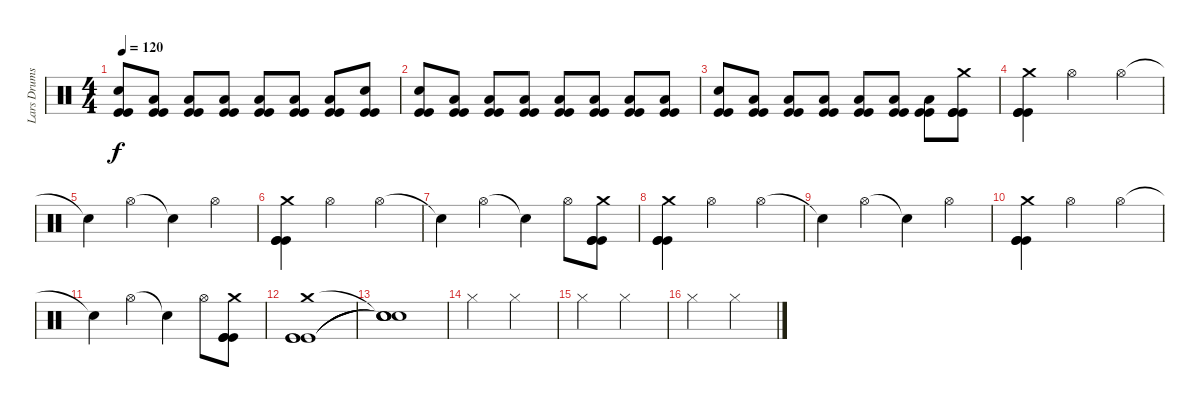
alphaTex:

\track ("Lars Drums" "Lars Drums") {instrument percussion}
\staff {score}
\articulation defaults
\ts (4 4)
\tempo 120
\clef neutral
\ks c
("Electric Snare (hit)" "Kick (hit)" "Kick (hit)").8{dy f} ("Low Tom (hit)" "Kick (hit)" "Kick (hit)").8 ("Low Tom (hit)" "Kick (hit)" "Kick (hit)").8 ("Low Tom (hit)" "Kick (hit)" "Kick (hit)").8 ("Low Tom (hit)" "Kick (hit)" "Kick (hit)").8 ("Low Tom (hit)" "Kick (hit)" "Kick (hit)").8 ("Low Tom (hit)" "Kick (hit)" "Kick (hit)").8 ("Electric Snare (hit)" "Kick (hit)" "Kick (hit)").8 |
("Electric Snare (hit)" "Kick (hit)" "Kick (hit)").8 ("Low Tom (hit)" "Kick (hit)" "Kick (hit)").8 ("Low Tom (hit)" "Kick (hit)" "Kick (hit)").8 ("Low Tom (hit)" "Kick (hit)" "Kick (hit)").8 ("Low Tom (hit)" "Kick (hit)" "Kick (hit)").8 ("Low Tom (hit)" "Kick (hit)" "Kick (hit)").8 ("Low Tom (hit)" "Kick (hit)" "Kick (hit)").8 ("Low Tom (hit)" "Kick (hit)" "Kick (hit)").8 |
("Electric Snare (hit)" "Kick (hit)" "Kick (hit)").8 ("Low Tom (hit)" "Kick (hit)" "Kick (hit)").8 ("Low Tom (hit)" "Kick (hit)" "Kick (hit)").8 ("Low Tom (hit)" "Kick (hit)" "Kick (hit)").8 ("Low Tom (hit)" "Kick (hit)" "Kick (hit)").8 ("Low Tom (hit)" "Kick (hit)" "Kick (hit)").8 ("Low Tom (hit)" "Kick (hit)" "Kick (hit)").8 ("Kick (hit)" "Kick (hit)" "Kick (hit)" "Crash medium (hit)").8 |
("Kick (hit)" "Kick (hit)" "Kick (hit)" "Crash medium (hit)").4 "Hi-Hat (open)".2 "Hi-Hat (open)".4 |
"Snare (hit)"{t}.4 "Hi-Hat (open)".4 "Snare (hit)"{t}.4 "Hi-Hat (open)".4 |
("Kick (hit)" "Kick (hit)" "Kick (hit)" "Crash medium (hit)").4 "Hi-Hat (open)".2 "Hi-Hat (open)".4 |
"Snare (hit)"{t}.4 "Hi-Hat (open)".4 "Snare (hit)"{t}.4 "Hi-Hat (open)".8 ("Kick (hit)" "Kick (hit)" "Kick (hit)" "Crash medium (hit)").8 |
("Kick (hit)" "Kick (hit)" "Kick (hit)" "Crash medium (hit)").4 "Hi-Hat (open)".2 "Hi-Hat (open)".4 |
"Snare (hit)"{t}.4 "Hi-Hat (open)".4 "Snare (hit)"{t}.4 "Hi-Hat (open)".4 |
("Kick (hit)" "Kick (hit)" "Kick (hit)" "Crash medium (hit)").4 "Hi-Hat (open)".2 "Hi-Hat (open)".4 |
"Snare (hit)"{t}.4 "Hi-Hat (open)".4 "Snare (hit)"{t}.4 "Hi-Hat (open)".8 ("Kick (hit)" "Kick (hit)" "Kick (hit)" "Crash medium (hit)").8 |
("Kick (hit)" "Kick (hit)" "Kick (hit)" "Crash medium (hit)").1 |
("Snare (hit)"{t} "Snare (hit)"{t} "Snare (hit)"{t} "Snare (hit)"{t}).1 |
"Hi-Hat (closed)".2 "Hi-Hat (closed)".2 |
"Hi-Hat (closed)".2 "Hi-Hat (closed)".2 |
"Hi-Hat (closed)".2 "Hi-Hat (closed)".2
